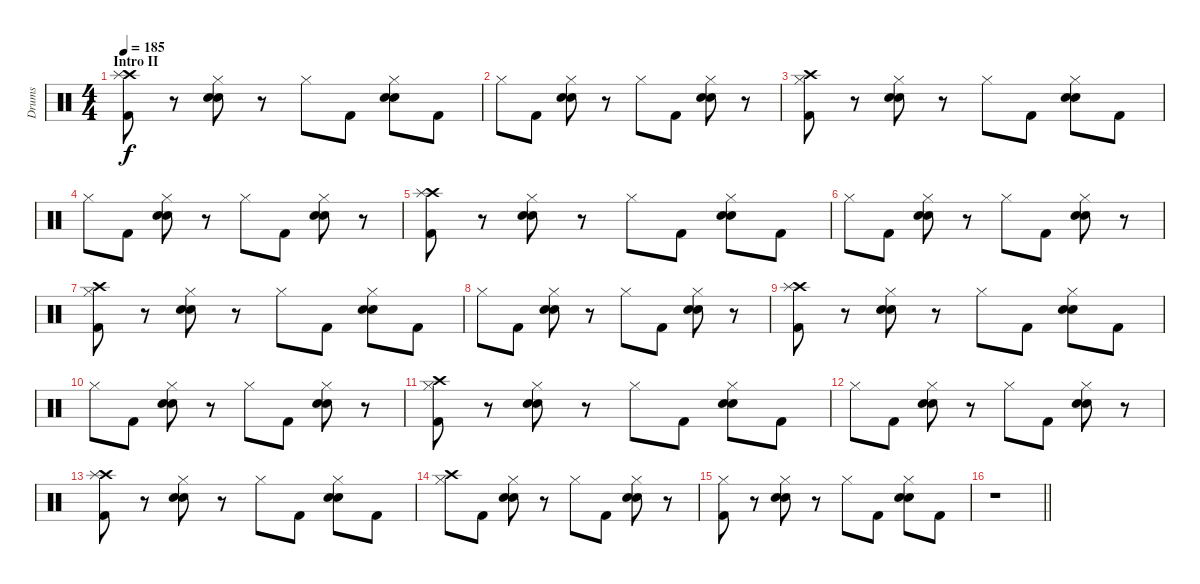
\track ("Drums" "Drums") {instrument percussion}
\staff {score}
\articulation defaults
\ts (4 4)
\section ("" "Intro II")
\tempo 185
\clef neutral
\ks c
("Crash high (hit)" "Kick (hit) 2" "Splash (hit)").8{dy f} r.8 ("Hi-Hat (closed)" "Snare (hit) 2" "Electric Snare (hit)").8 r.8 "Hi-Hat (closed)".8 "Kick (hit) 2".8 ("Hi-Hat (closed)" "Snare (hit) 2" "Electric Snare (hit)").8 "Kick (hit) 2".8 |
"Hi-Hat (closed)".8 "Kick (hit) 2".8 ("Hi-Hat (closed)" "Snare (hit) 2" "Electric Snare (hit)").8 r.8 "Hi-Hat (closed)".8 "Kick (hit) 2".8 ("Hi-Hat (closed)" "Snare (hit) 2" "Electric Snare (hit)").8 r.8 |
("Hi-Hat (closed)" "Kick (hit) 2" "Crash high (hit)").8 r.8 ("Hi-Hat (closed)" "Snare (hit) 2" "Electric Snare (hit)").8 r.8 "Hi-Hat (closed)".8 "Kick (hit) 2".8 ("Hi-Hat (closed)" "Snare (hit) 2" "Electric Snare (hit)").8 "Kick (hit) 2".8 |
"Hi-Hat (closed)".8 "Kick (hit) 2".8 ("Hi-Hat (closed)" "Snare (hit) 2" "Electric Snare (hit)").8 r.8 "Hi-Hat (closed)".8 "Kick (hit) 2".8 ("Hi-Hat (closed)" "Snare (hit) 2" "Electric Snare (hit)").8 r.8 |
("Crash high (hit)" "Kick (hit) 2" "Splash (hit)").8 r.8 ("Hi-Hat (closed)" "Snare (hit) 2" "Electric Snare (hit)").8 r.8 "Hi-Hat (closed)".8 "Kick (hit) 2".8 ("Hi-Hat (closed)" "Snare (hit) 2" "Electric Snare (hit)").8 "Kick (hit) 2".8 |
"Hi-Hat (closed)".8 "Kick (hit) 2".8 ("Hi-Hat (closed)" "Snare (hit) 2" "Electric Snare (hit)").8 r.8 "Hi-Hat (closed)".8 "Kick (hit) 2".8 ("Hi-Hat (closed)" "Snare (hit) 2" "Electric Snare (hit)").8 r.8 |
("Hi-Hat (closed)" "Kick (hit) 2" "Crash high (hit)").8 r.8 ("Hi-Hat (closed)" "Snare (hit) 2" "Electric Snare (hit)").8 r.8 "Hi-Hat (closed)".8 "Kick (hit) 2".8 ("Hi-Hat (closed)" "Snare (hit) 2" "Electric Snare (hit)").8 "Kick (hit) 2".8 |
"Hi-Hat (closed)".8 "Kick (hit) 2".8 ("Hi-Hat (closed)" "Snare (hit) 2" "Electric Snare (hit)").8 r.8 "Hi-Hat (closed)".8 "Kick (hit) 2".8 ("Hi-Hat (closed)" "Snare (hit) 2" "Electric Snare (hit)").8 r.8 |
("Crash high (hit)" "Kick (hit) 2" "Splash (hit)").8 r.8 ("Hi-Hat (closed)" "Snare (hit) 2" "Electric Snare (hit)").8 r.8 "Hi-Hat (closed)".8 "Kick (hit) 2".8 ("Hi-Hat (closed)" "Snare (hit) 2" "Electric Snare (hit)").8 "Kick (hit) 2".8 |
"Hi-Hat (closed)".8 "Kick (hit) 2".8 ("Hi-Hat (closed)" "Snare (hit) 2" "Electric Snare (hit)").8 r.8 "Hi-Hat (closed)".8 "Kick (hit) 2".8 ("Hi-Hat (closed)" "Snare (hit) 2" "Electric Snare (hit)").8 r.8 |
("Hi-Hat (closed)" "Kick (hit) 2" "Crash high (hit)").8 r.8 ("Hi-Hat (closed)" "Snare (hit) 2" "Electric Snare (hit)").8 r.8 "Hi-Hat (closed)".8 "Kick (hit) 2".8 ("Hi-Hat (closed)" "Snare (hit) 2" "Electric Snare (hit)").8 "Kick (hit) 2".8 |
"Hi-Hat (closed)".8 "Kick (hit) 2".8 ("Hi-Hat (closed)" "Snare (hit) 2" "Electric Snare (hit)").8 r.8 "Hi-Hat (closed)".8 "Kick (hit) 2".8 ("Hi-Hat (closed)" "Snare (hit) 2" "Electric Snare (hit)").8 r.8 |
("Crash high (hit)" "Kick (hit) 2" "Splash (hit)").8 r.8 ("Hi-Hat (closed)" "Snare (hit) 2" "Electric Snare (hit)").8 r.8 "Hi-Hat (closed)".8 "Kick (hit) 2".8 ("Hi-Hat (closed)" "Snare (hit) 2" "Electric Snare (hit)").8 "Kick (hit) 2".8 |
("Hi-Hat (closed)" "Crash high (hit)").8 "Kick (hit) 2".8 ("Hi-Hat (closed)" "Snare (hit) 2" "Electric Snare (hit)").8 r.8 "Hi-Hat (closed)".8 "Kick (hit) 2".8 ("Hi-Hat (closed)" "Snare (hit) 2" "Electric Snare (hit)").8 r.8 |
("Hi-Hat (closed)" "Kick (hit) 2").8 r.8 ("Hi-Hat (closed)" "Snare (hit) 2" "Electric Snare (hit)").8 r.8 "Hi-Hat (closed)".8 "Kick (hit) 2".8 ("Hi-Hat (closed)" "Snare (hit) 2" "Electric Snare (hit)").8 "Kick (hit) 2".8 |
\barLineRight lightlight
r.1
